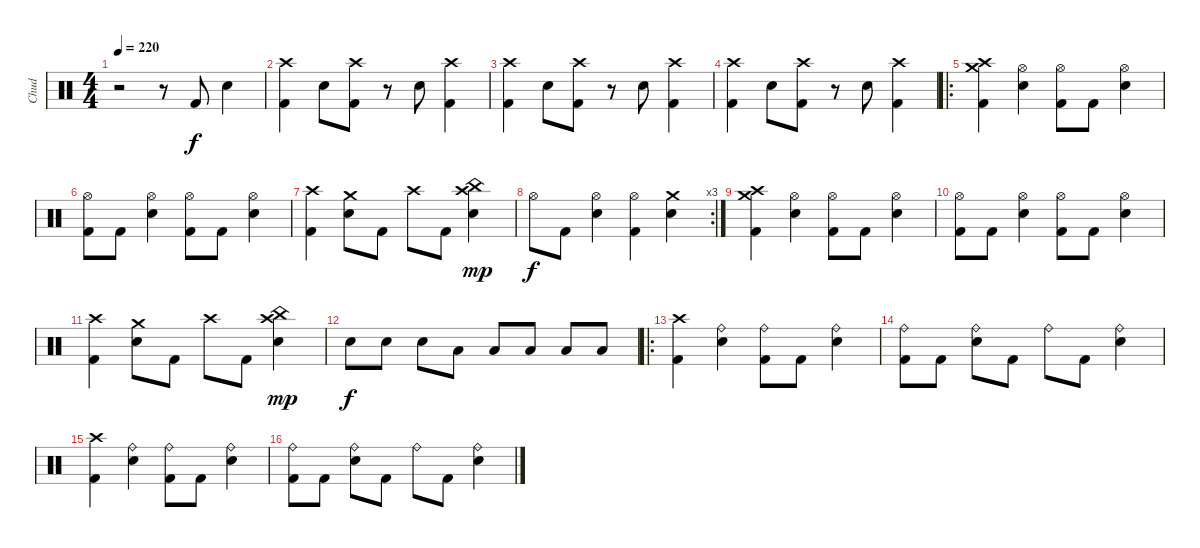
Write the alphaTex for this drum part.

\track ("Chud" "Chud") {instrument percussion}
\staff {score}
\articulation defaults
\ts (4 4)
\tempo 220
\clef neutral
\ks c
r.2{dy f} r.8 "Kick (hit) 2".8 "Electric Snare (hit)".4 |
("Crash high (hit)" "Kick (hit) 2").4 "Electric Snare (hit)".8 ("Crash high (hit)" "Kick (hit) 2").8 r.8 "Electric Snare (hit)".8 ("Crash high (hit)" "Kick (hit) 2").4 |
("Crash high (hit)" "Kick (hit) 2").4 "Electric Snare (hit)".8 ("Crash high (hit)" "Kick (hit) 2").8 r.8 "Electric Snare (hit)".8 ("Crash high (hit)" "Kick (hit) 2").4 |
("Crash high (hit)" "Kick (hit) 2").4 "Electric Snare (hit)".8 ("Crash high (hit)" "Kick (hit) 2").8 r.8 "Electric Snare (hit)".8 ("Crash high (hit)" "Kick (hit) 2").4 |
\ro
("Crash high (hit)" "Crash medium (hit)" "Kick (hit) 2").4 ("Hi-Hat (open)" "Electric Snare (hit)").4 ("Hi-Hat (open)" "Kick (hit) 2").8 "Kick (hit) 2".8 ("Hi-Hat (open)" "Electric Snare (hit)").4 |
("Hi-Hat (open)" "Kick (hit) 2").8 "Kick (hit) 2".8 ("Hi-Hat (open)" "Electric Snare (hit)").4 ("Hi-Hat (open)" "Kick (hit) 2").8 "Kick (hit) 2".8 ("Hi-Hat (open)" "Electric Snare (hit)").4 |
("Crash high (hit)" "Kick (hit) 2").4 ("Crash medium (hit)" "Electric Snare (hit)").8 "Kick (hit) 2".8 "Crash high (hit)".8 "Kick (hit) 2".8 ("China (hit)" "Crash high (hit)" "Electric Snare (hit)").4{dy mp} |
\rc 3 "Hi-Hat (open)".8{dy f} "Kick (hit) 2".8
("Hi-Hat (open)" "Electric Snare (hit)").4 ("Hi-Hat (open)" "Kick (hit) 2").4 ("Crash medium (hit)" "Electric Snare (hit)").4 |
("Crash high (hit)" "Crash medium (hit)" "Kick (hit) 2").4 ("Hi-Hat (open)" "Electric Snare (hit)").4 ("Hi-Hat (open)" "Kick (hit) 2").8 "Kick (hit) 2".8 ("Hi-Hat (open)" "Electric Snare (hit)").4 |
("Hi-Hat (open)" "Kick (hit) 2").8 "Kick (hit) 2".8 ("Hi-Hat (open)" "Electric Snare (hit)").4 ("Hi-Hat (open)" "Kick (hit) 2").8 "Kick (hit) 2".8 ("Hi-Hat (open)" "Electric Snare (hit)").4 |
("Crash high (hit)" "Kick (hit) 2").4 ("Crash medium (hit)" "Electric Snare (hit)").8 "Kick (hit) 2".8 "Crash high (hit)".8 "Kick (hit) 2".8 ("China (hit)" "Crash high (hit)" "Electric Snare (hit)").4{dy mp} |
"Electric Snare (hit)".8{dy f} "Electric Snare (hit)".8 "Electric Snare (hit)".8 "Low Tom (hit)".8 "Low Tom (hit)".8 "Low Tom (hit)".8 "Low Tom (hit)".8 "Low Tom (hit)".8 |
\ro
("Crash high (hit)" "Kick (hit) 2").4 ("Ride (bell)" "Electric Snare (hit)").4 ("Ride (bell)" "Kick (hit) 2").8 "Kick (hit) 2".8 ("Ride (bell)" "Electric Snare (hit)").4 |
("Ride (bell)" "Kick (hit) 2").8 "Kick (hit) 2".8 ("Ride (bell)" "Electric Snare (hit)").8 "Kick (hit) 2".8 "Ride (bell)".8 "Kick (hit) 2".8 ("Ride (bell)" "Electric Snare (hit)").4 |
("Crash high (hit)" "Kick (hit) 2").4 ("Ride (bell)" "Electric Snare (hit)").4 ("Ride (bell)" "Kick (hit) 2").8 "Kick (hit) 2".8 ("Ride (bell)" "Electric Snare (hit)").4 |
("Ride (bell)" "Kick (hit) 2").8 "Kick (hit) 2".8 ("Ride (bell)" "Electric Snare (hit)").8 "Kick (hit) 2".8 "Ride (bell)".8 "Kick (hit) 2".8 ("Ride (bell)" "Electric Snare (hit)").4
